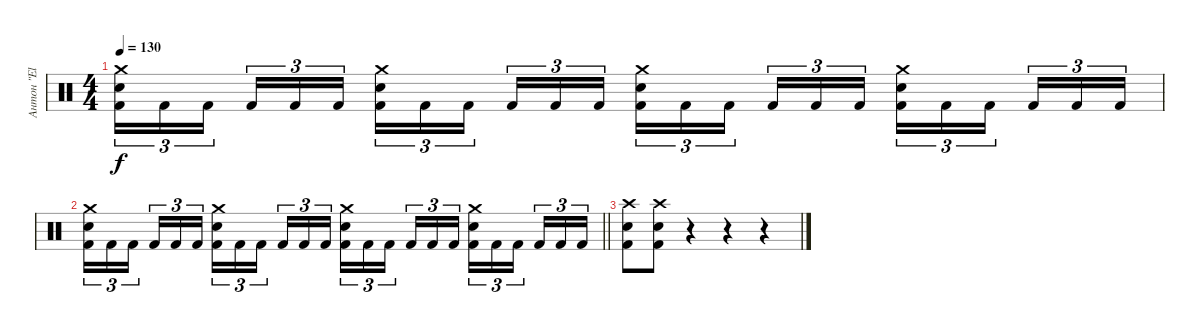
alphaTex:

\track ("Антон \"El Bastardo\" Смольянин" "Антон \"El ") {instrument percussion}
\staff {score}
\articulation defaults
\ts (4 4)
\tempo 130
\clef neutral
\ks c
("Crash medium (hit)" "Electric Snare (hit)" "Kick (hit) 2").16{tu (3 2) dy f} "Kick (hit) 2".16{tu (3 2)} "Kick (hit) 2".16{tu (3 2) beam splitsecondary} "Kick (hit) 2".16{tu (3 2)} "Kick (hit) 2".16{tu (3 2)} "Kick (hit) 2".16{tu (3 2)} ("Crash medium (hit)" "Electric Snare (hit)" "Kick (hit) 2").16{tu (3 2)} "Kick (hit) 2".16{tu (3 2)} "Kick (hit) 2".16{tu (3 2) beam splitsecondary} "Kick (hit) 2".16{tu (3 2)} "Kick (hit) 2".16{tu (3 2)} "Kick (hit) 2".16{tu (3 2)} ("Crash medium (hit)" "Electric Snare (hit)" "Kick (hit) 2").16{tu (3 2)} "Kick (hit) 2".16{tu (3 2)} "Kick (hit) 2".16{tu (3 2) beam splitsecondary} "Kick (hit) 2".16{tu (3 2)} "Kick (hit) 2".16{tu (3 2)} "Kick (hit) 2".16{tu (3 2)} ("Crash medium (hit)" "Electric Snare (hit)" "Kick (hit) 2").16{tu (3 2)} "Kick (hit) 2".16{tu (3 2)} "Kick (hit) 2".16{tu (3 2) beam splitsecondary} "Kick (hit) 2".16{tu (3 2)} "Kick (hit) 2".16{tu (3 2)} "Kick (hit) 2".16{tu (3 2)} |
\barLineRight lightlight
("Crash medium (hit)" "Electric Snare (hit)" "Kick (hit) 2").16{tu (3 2)} "Kick (hit) 2".16{tu (3 2)} "Kick (hit) 2".16{tu (3 2) beam splitsecondary} "Kick (hit) 2".16{tu (3 2)} "Kick (hit) 2".16{tu (3 2)} "Kick (hit) 2".16{tu (3 2)} ("Crash medium (hit)" "Electric Snare (hit)" "Kick (hit) 2").16{tu (3 2)} "Kick (hit) 2".16{tu (3 2)} "Kick (hit) 2".16{tu (3 2) beam splitsecondary} "Kick (hit) 2".16{tu (3 2)} "Kick (hit) 2".16{tu (3 2)} "Kick (hit) 2".16{tu (3 2)} ("Crash medium (hit)" "Electric Snare (hit)" "Kick (hit) 2").16{tu (3 2)} "Kick (hit) 2".16{tu (3 2)} "Kick (hit) 2".16{tu (3 2) beam splitsecondary} "Kick (hit) 2".16{tu (3 2)} "Kick (hit) 2".16{tu (3 2)} "Kick (hit) 2".16{tu (3 2)} ("Crash medium (hit)" "Electric Snare (hit)" "Kick (hit) 2").16{tu (3 2)} "Kick (hit) 2".16{tu (3 2)} "Kick (hit) 2".16{tu (3 2) beam splitsecondary} "Kick (hit) 2".16{tu (3 2)} "Kick (hit) 2".16{tu (3 2)} "Kick (hit) 2".16{tu (3 2)} |
("Crash high (hit)" "Electric Snare (hit)" "Kick (hit) 2").8 ("Crash high (hit)" "Electric Snare (hit)" "Kick (hit) 2").8 r.4 r.4 r.4
